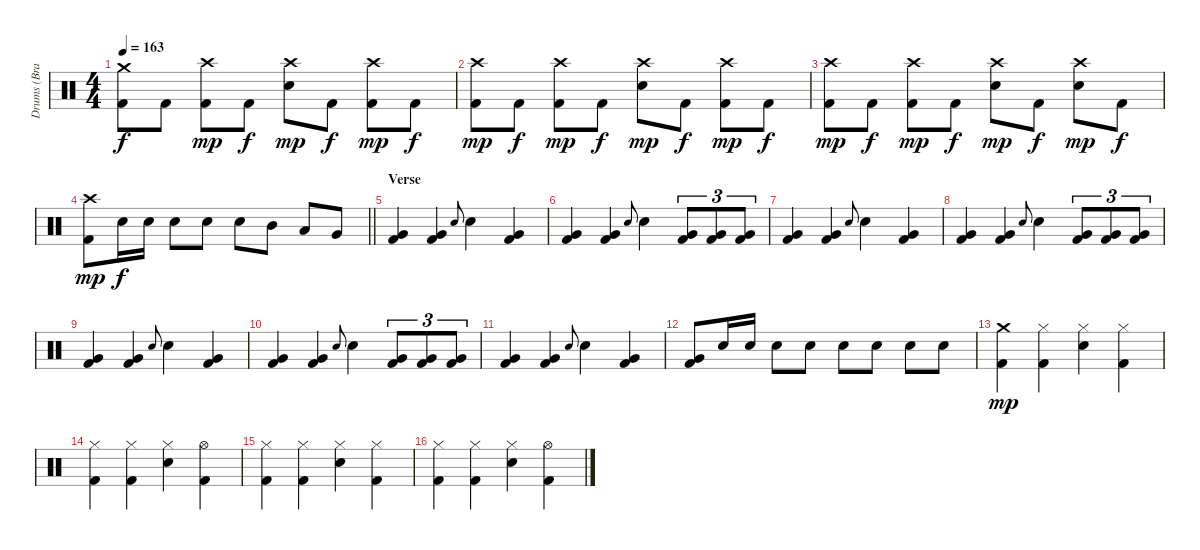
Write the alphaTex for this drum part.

\track ("Drums (Brandon Saller)" "Drums (Bra") {instrument percussion}
\staff {score}
\articulation defaults
\ts (4 4)
\tempo 163
\clef neutral
\ks c
("Crash medium (hit)" "Kick (hit) 2").8{dy f} "Kick (hit) 2".8 ("Crash high (hit)" "Kick (hit) 2").8{dy mp} "Kick (hit) 2".8{dy f} ("Crash high (hit)" "Electric Snare (hit)").8{dy mp} "Kick (hit) 2".8{dy f} ("Crash high (hit)" "Kick (hit) 2").8{dy mp} "Kick (hit) 2".8{dy f} |
("Crash high (hit)" "Kick (hit) 2").8{dy mp} "Kick (hit) 2".8{dy f} ("Crash high (hit)" "Kick (hit) 2").8{dy mp} "Kick (hit) 2".8{dy f} ("Crash high (hit)" "Electric Snare (hit)").8{dy mp} "Kick (hit) 2".8{dy f} ("Crash high (hit)" "Kick (hit) 2").8{dy mp} "Kick (hit) 2".8{dy f} |
("Crash high (hit)" "Kick (hit) 2").8{dy mp} "Kick (hit) 2".8{dy f} ("Crash high (hit)" "Kick (hit) 2").8{dy mp} "Kick (hit) 2".8{dy f} ("Crash high (hit)" "Electric Snare (hit)").8{dy mp} "Kick (hit) 2".8{dy f} ("Crash high (hit)" "Electric Snare (hit)").8{dy mp} "Kick (hit) 2".8{dy f} |
\barLineRight lightlight
("Crash high (hit)" "Kick (hit) 2").8{dy mp} "Electric Snare (hit)".16{dy f} "Electric Snare (hit)".16 "Electric Snare (hit)".8 "Electric Snare (hit)".8 "Electric Snare (hit)".8 "Mid Tom (hit)".8 "Low Tom (hit)".8 "Very Low Tom (hit)".8 |
\section ("" "Verse")
("Very Low Tom (hit)" "Kick (hit) 2").4 ("Very Low Tom (hit)" "Kick (hit) 2").4 "Electric Snare (hit)".8{gr onbeat} "Electric Snare (hit)".4 ("Very Low Tom (hit)" "Kick (hit) 2").4 |
("Very Low Tom (hit)" "Kick (hit) 2").4 ("Very Low Tom (hit)" "Kick (hit) 2").4 "Electric Snare (hit)".8{gr onbeat} "Electric Snare (hit)".4 ("Very Low Tom (hit)" "Kick (hit) 2").8{tu (3 2)} ("Very Low Tom (hit)" "Kick (hit) 2").8{tu (3 2)} ("Very Low Tom (hit)" "Kick (hit) 2").8{tu (3 2)} |
("Very Low Tom (hit)" "Kick (hit) 2").4 ("Very Low Tom (hit)" "Kick (hit) 2").4 "Electric Snare (hit)".8{gr onbeat} "Electric Snare (hit)".4 ("Very Low Tom (hit)" "Kick (hit) 2").4 |
("Very Low Tom (hit)" "Kick (hit) 2").4 ("Very Low Tom (hit)" "Kick (hit) 2").4 "Electric Snare (hit)".8{gr onbeat} "Electric Snare (hit)".4 ("Very Low Tom (hit)" "Kick (hit) 2").8{tu (3 2)} ("Very Low Tom (hit)" "Kick (hit) 2").8{tu (3 2)} ("Very Low Tom (hit)" "Kick (hit) 2").8{tu (3 2)} |
("Very Low Tom (hit)" "Kick (hit) 2").4 ("Very Low Tom (hit)" "Kick (hit) 2").4 "Electric Snare (hit)".8{gr onbeat} "Electric Snare (hit)".4 ("Very Low Tom (hit)" "Kick (hit) 2").4 |
("Very Low Tom (hit)" "Kick (hit) 2").4 ("Very Low Tom (hit)" "Kick (hit) 2").4 "Electric Snare (hit)".8{gr onbeat} "Electric Snare (hit)".4 ("Very Low Tom (hit)" "Kick (hit) 2").8{tu (3 2)} ("Very Low Tom (hit)" "Kick (hit) 2").8{tu (3 2)} ("Very Low Tom (hit)" "Kick (hit) 2").8{tu (3 2)} |
("Very Low Tom (hit)" "Kick (hit) 2").4 ("Very Low Tom (hit)" "Kick (hit) 2").4 "Electric Snare (hit)".8{gr onbeat} "Electric Snare (hit)".4 ("Very Low Tom (hit)" "Kick (hit) 2").4 |
("Very Low Tom (hit)" "Kick (hit) 2").8 "Electric Snare (hit)".16 "Electric Snare (hit)".16 "Electric Snare (hit)".8 "Electric Snare (hit)".8 "Electric Snare (hit)".8 "Electric Snare (hit)".8 "Electric Snare (hit)".8 "Electric Snare (hit)".8 |
("Crash medium (hit)" "Kick (hit) 2").4{dy mp} ("Hi-Hat (closed)" "Kick (hit) 2").4 ("Hi-Hat (closed)" "Electric Snare (hit)").4 ("Hi-Hat (closed)" "Kick (hit) 2").4 |
("Hi-Hat (closed)" "Kick (hit) 2").4 ("Hi-Hat (closed)" "Kick (hit) 2").4 ("Hi-Hat (closed)" "Electric Snare (hit)").4 ("Hi-Hat (open)" "Kick (hit) 2").4 |
("Hi-Hat (closed)" "Kick (hit) 2").4 ("Hi-Hat (closed)" "Kick (hit) 2").4 ("Hi-Hat (closed)" "Electric Snare (hit)").4 ("Hi-Hat (closed)" "Kick (hit) 2").4 |
("Hi-Hat (closed)" "Kick (hit) 2").4 ("Hi-Hat (closed)" "Kick (hit) 2").4 ("Hi-Hat (closed)" "Electric Snare (hit)").4 ("Hi-Hat (open)" "Kick (hit) 2").4
